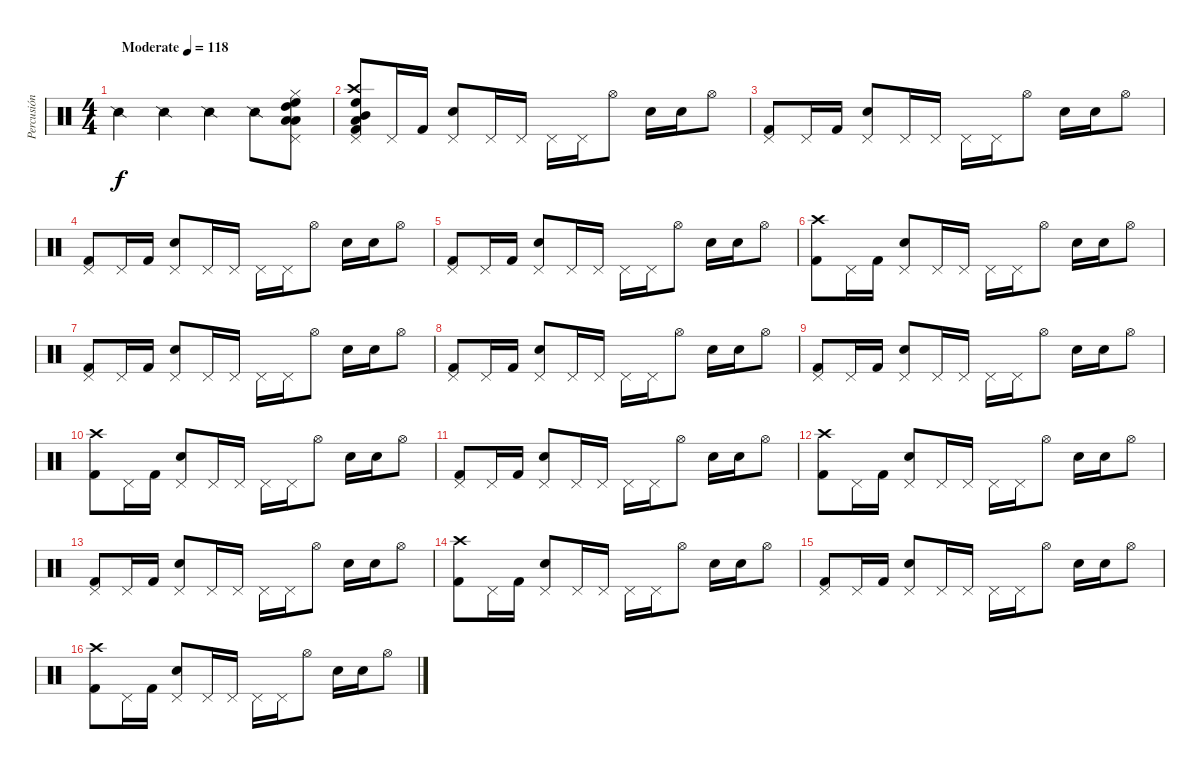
\track ("Percusión" "Percusión") {instrument percussion}
\staff {score}
\articulation defaults
\ts (4 4)
\tempo (118 "Moderate")
\clef neutral
\ks c "Snare (side stick) 2".4{dy f} "Snare (side stick) 2".4 "Snare (side stick) 2".4 "Snare (side stick) 2".8
("High Floor Tom (hit)" "Low Tom (hit)" "Pedal Hi-Hat (hit)" "High Tom (hit)" "Hi-Hat (closed)" "Low Floor Tom (hit)").8 |
("Crash high (hit)" "High Floor Tom (hit)" "Low Tom (hit)" "Pedal Hi-Hat (hit)" "Mid Tom (hit)" "Kick (hit) 2").8 "Pedal Hi-Hat (hit)".16 "Kick (hit) 2".16 ("Pedal Hi-Hat (hit)" "Snare (hit) 2").8 "Pedal Hi-Hat (hit)".16 "Pedal Hi-Hat (hit)".16 "Pedal Hi-Hat (hit)".16 "Pedal Hi-Hat (hit)".16 "Hi-Hat (open)".8 "Snare (hit) 2".16 "Snare (hit) 2".16 "Hi-Hat (open)".8 |
("Pedal Hi-Hat (hit)" "Kick (hit) 2").8 "Pedal Hi-Hat (hit)".16 "Kick (hit) 2".16 ("Pedal Hi-Hat (hit)" "Snare (hit) 2").8 "Pedal Hi-Hat (hit)".16 "Pedal Hi-Hat (hit)".16 "Pedal Hi-Hat (hit)".16 "Pedal Hi-Hat (hit)".16 "Hi-Hat (open)".8 "Snare (hit) 2".16 "Snare (hit) 2".16 "Hi-Hat (open)".8 |
("Pedal Hi-Hat (hit)" "Kick (hit) 2").8 "Pedal Hi-Hat (hit)".16 "Kick (hit) 2".16 ("Pedal Hi-Hat (hit)" "Snare (hit) 2").8 "Pedal Hi-Hat (hit)".16 "Pedal Hi-Hat (hit)".16 "Pedal Hi-Hat (hit)".16 "Pedal Hi-Hat (hit)".16 "Hi-Hat (open)".8 "Snare (hit) 2".16 "Snare (hit) 2".16 "Hi-Hat (open)".8 |
("Pedal Hi-Hat (hit)" "Kick (hit) 2").8 "Pedal Hi-Hat (hit)".16 "Kick (hit) 2".16 ("Pedal Hi-Hat (hit)" "Snare (hit) 2").8 "Pedal Hi-Hat (hit)".16 "Pedal Hi-Hat (hit)".16 "Pedal Hi-Hat (hit)".16 "Pedal Hi-Hat (hit)".16 "Hi-Hat (open)".8 "Snare (hit) 2".16 "Snare (hit) 2".16 "Hi-Hat (open)".8 |
("Crash high (hit)" "Kick (hit) 2").8 "Pedal Hi-Hat (hit)".16 "Kick (hit) 2".16 ("Pedal Hi-Hat (hit)" "Snare (hit) 2").8 "Pedal Hi-Hat (hit)".16 "Pedal Hi-Hat (hit)".16 "Pedal Hi-Hat (hit)".16 "Pedal Hi-Hat (hit)".16 "Hi-Hat (open)".8 "Snare (hit) 2".16 "Snare (hit) 2".16 "Hi-Hat (open)".8 |
("Pedal Hi-Hat (hit)" "Kick (hit) 2").8 "Pedal Hi-Hat (hit)".16 "Kick (hit) 2".16 ("Pedal Hi-Hat (hit)" "Snare (hit) 2").8 "Pedal Hi-Hat (hit)".16 "Pedal Hi-Hat (hit)".16 "Pedal Hi-Hat (hit)".16 "Pedal Hi-Hat (hit)".16 "Hi-Hat (open)".8 "Snare (hit) 2".16 "Snare (hit) 2".16 "Hi-Hat (open)".8 |
("Pedal Hi-Hat (hit)" "Kick (hit) 2").8 "Pedal Hi-Hat (hit)".16 "Kick (hit) 2".16 ("Pedal Hi-Hat (hit)" "Snare (hit) 2").8 "Pedal Hi-Hat (hit)".16 "Pedal Hi-Hat (hit)".16 "Pedal Hi-Hat (hit)".16 "Pedal Hi-Hat (hit)".16 "Hi-Hat (open)".8 "Snare (hit) 2".16 "Snare (hit) 2".16 "Hi-Hat (open)".8 |
("Pedal Hi-Hat (hit)" "Kick (hit) 2").8 "Pedal Hi-Hat (hit)".16 "Kick (hit) 2".16 ("Pedal Hi-Hat (hit)" "Snare (hit) 2").8 "Pedal Hi-Hat (hit)".16 "Pedal Hi-Hat (hit)".16 "Pedal Hi-Hat (hit)".16 "Pedal Hi-Hat (hit)".16 "Hi-Hat (open)".8 "Snare (hit) 2".16 "Snare (hit) 2".16 "Hi-Hat (open)".8 |
("Crash high (hit)" "Kick (hit) 2").8 "Pedal Hi-Hat (hit)".16 "Kick (hit) 2".16 ("Pedal Hi-Hat (hit)" "Snare (hit) 2").8 "Pedal Hi-Hat (hit)".16 "Pedal Hi-Hat (hit)".16 "Pedal Hi-Hat (hit)".16 "Pedal Hi-Hat (hit)".16 "Hi-Hat (open)".8 "Snare (hit) 2".16 "Snare (hit) 2".16 "Hi-Hat (open)".8 |
("Pedal Hi-Hat (hit)" "Kick (hit) 2").8 "Pedal Hi-Hat (hit)".16 "Kick (hit) 2".16 ("Pedal Hi-Hat (hit)" "Snare (hit) 2").8 "Pedal Hi-Hat (hit)".16 "Pedal Hi-Hat (hit)".16 "Pedal Hi-Hat (hit)".16 "Pedal Hi-Hat (hit)".16 "Hi-Hat (open)".8 "Snare (hit) 2".16 "Snare (hit) 2".16 "Hi-Hat (open)".8 |
("Crash high (hit)" "Kick (hit) 2").8 "Pedal Hi-Hat (hit)".16 "Kick (hit) 2".16 ("Pedal Hi-Hat (hit)" "Snare (hit) 2").8 "Pedal Hi-Hat (hit)".16 "Pedal Hi-Hat (hit)".16 "Pedal Hi-Hat (hit)".16 "Pedal Hi-Hat (hit)".16 "Hi-Hat (open)".8 "Snare (hit) 2".16 "Snare (hit) 2".16 "Hi-Hat (open)".8 |
("Pedal Hi-Hat (hit)" "Kick (hit) 2").8 "Pedal Hi-Hat (hit)".16 "Kick (hit) 2".16 ("Pedal Hi-Hat (hit)" "Snare (hit) 2").8 "Pedal Hi-Hat (hit)".16 "Pedal Hi-Hat (hit)".16 "Pedal Hi-Hat (hit)".16 "Pedal Hi-Hat (hit)".16 "Hi-Hat (open)".8 "Snare (hit) 2".16 "Snare (hit) 2".16 "Hi-Hat (open)".8 |
("Crash high (hit)" "Kick (hit) 2").8 "Pedal Hi-Hat (hit)".16 "Kick (hit) 2".16 ("Pedal Hi-Hat (hit)" "Snare (hit) 2").8 "Pedal Hi-Hat (hit)".16 "Pedal Hi-Hat (hit)".16 "Pedal Hi-Hat (hit)".16 "Pedal Hi-Hat (hit)".16 "Hi-Hat (open)".8 "Snare (hit) 2".16 "Snare (hit) 2".16 "Hi-Hat (open)".8 |
("Pedal Hi-Hat (hit)" "Kick (hit) 2").8 "Pedal Hi-Hat (hit)".16 "Kick (hit) 2".16 ("Pedal Hi-Hat (hit)" "Snare (hit) 2").8 "Pedal Hi-Hat (hit)".16 "Pedal Hi-Hat (hit)".16 "Pedal Hi-Hat (hit)".16 "Pedal Hi-Hat (hit)".16 "Hi-Hat (open)".8 "Snare (hit) 2".16 "Snare (hit) 2".16 "Hi-Hat (open)".8 |
("Crash high (hit)" "Kick (hit) 2").8 "Pedal Hi-Hat (hit)".16 "Kick (hit) 2".16 ("Pedal Hi-Hat (hit)" "Snare (hit) 2").8 "Pedal Hi-Hat (hit)".16 "Pedal Hi-Hat (hit)".16 "Pedal Hi-Hat (hit)".16 "Pedal Hi-Hat (hit)".16 "Hi-Hat (open)".8 "Snare (hit) 2".16 "Snare (hit) 2".16 "Hi-Hat (open)".8
